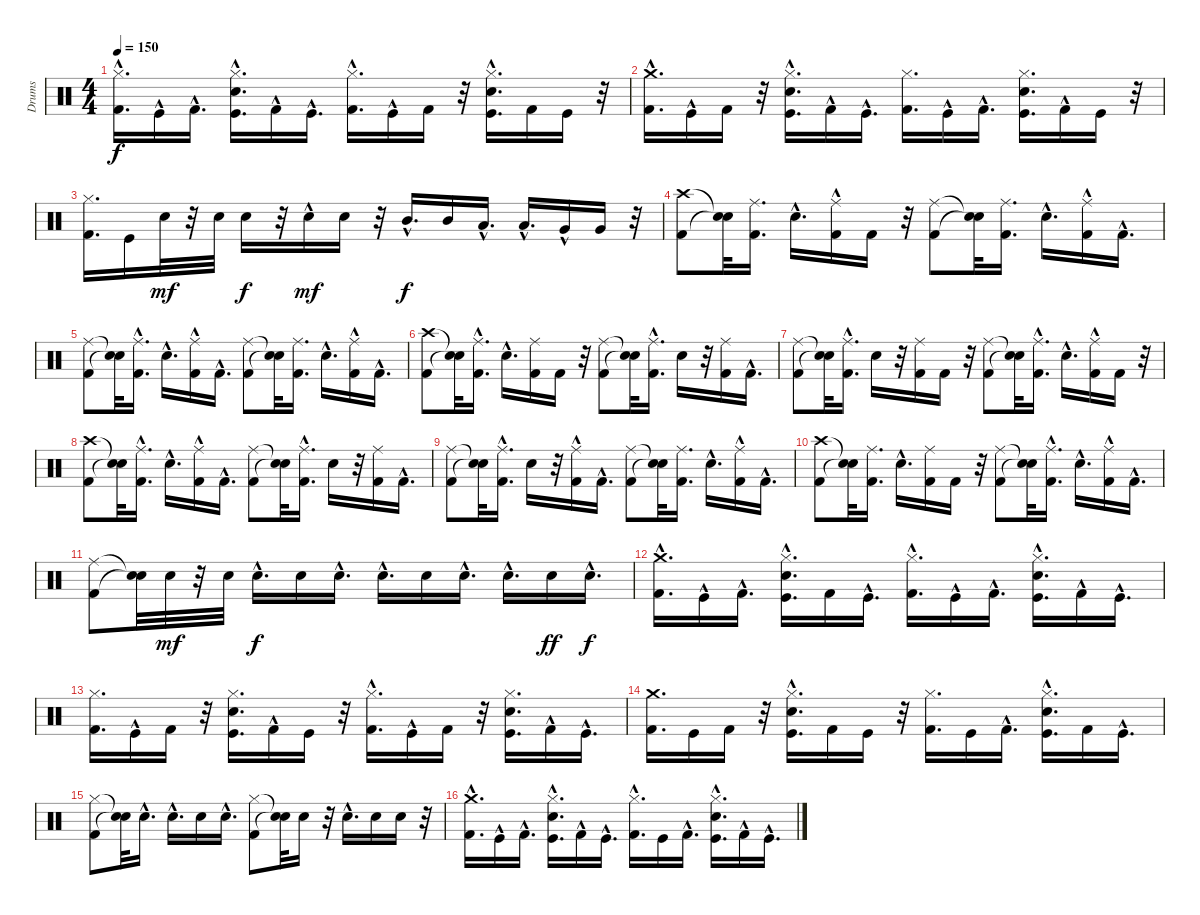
\track ("Drums" "Drums") {instrument percussion}
\staff {score}
\articulation defaults
\ts (4 4)
\tempo 150
\clef neutral
\ks c
("Hi-Hat (closed)" "Kick (hit) 2"{hac}).16{d dy f} "Kick (hit)"{hac}.16 "Kick (hit) 2"{hac}.16{d} ("Kick (hit)"{hac} "Hi-Hat (closed)" "Snare (hit) 2").16{d} "Kick (hit) 2"{hac}.16 "Kick (hit)"{hac}.16{d} ("Kick (hit) 2"{hac} "Hi-Hat (closed)").16{d} "Kick (hit)"{hac}.16 "Kick (hit) 2".16 r.32 ("Snare (hit) 2" "Hi-Hat (closed)" "Kick (hit)"{hac}).16{d} "Kick (hit) 2".16 "Kick (hit)".16 r.32 |
("Crash medium (hit)" "Kick (hit) 2"{hac}).16{d} "Kick (hit)"{hac}.16 "Kick (hit) 2".16 r.32 ("Kick (hit)"{hac} "Hi-Hat (closed)" "Snare (hit) 2").16{d} "Kick (hit) 2"{hac}.16 "Kick (hit)"{hac}.16{d} ("Hi-Hat (closed)" "Kick (hit) 2").16{d} "Kick (hit)"{hac}.16 "Kick (hit) 2"{hac}.16{d} ("Snare (hit) 2" "Hi-Hat (closed)" "Kick (hit)").16{d} "Kick (hit) 2"{hac}.16 "Kick (hit)".16 r.32 |
("Hi-Hat (closed)" "Kick (hit) 2").16{d} "Kick (hit)".16 "Snare (hit) 2".32{dy mf} r.32 "Snare (hit) 2".32 "Snare (hit) 2".16{dy f} r.32 "Snare (hit) 2"{hac}.16{dy mf} "Snare (hit) 2".16 r.32 "Mid Tom (hit)"{hac}.16{d dy f} "Mid Tom (hit)".16 "Low Tom (hit)"{hac}.16{d} "Low Tom (hit)"{hac}.16{d} "Very Low Tom (hit)"{hac}.16 "Very Low Tom (hit)".16 r.32 |
("Crash high (hit)" "Kick (hit) 2").8 ("Snare (hit)"{t} "Snare (hit)"{t}).32 ("Ride (middle)" "Kick (hit) 2").16{d} "Electric Snare (hit)"{hac}.16{d} ("Kick (hit) 2"{hac} "Ride (middle)").16 "Kick (hit) 2".16 r.32 ("Ride (middle)" "Kick (hit) 2").8 ("Snare (hit)"{t} "Snare (hit)"{t}).32 ("Ride (middle)" "Kick (hit) 2").16{d} "Electric Snare (hit)"{hac}.16{d} ("Ride (middle)" "Kick (hit) 2"{hac}).16 "Kick (hit) 2"{hac}.16{d} |
("Ride (middle)" "Kick (hit) 2").8 ("Snare (hit)"{t} "Snare (hit)"{t}).32 ("Ride (middle)" "Kick (hit) 2"{hac}).16{d} "Electric Snare (hit)"{hac}.16{d} ("Ride (middle)" "Kick (hit) 2"{hac}).16 "Kick (hit) 2"{hac}.16{d} ("Kick (hit) 2" "Ride (middle)").8 ("Snare (hit)"{t} "Snare (hit)"{t}).32 ("Ride (middle)" "Kick (hit) 2").16{d} "Electric Snare (hit)"{hac}.16{d} ("Kick (hit) 2"{hac} "Ride (middle)").16 "Kick (hit) 2"{hac}.16{d} |
("Kick (hit) 2" "Crash high (hit)").8 ("Snare (hit)"{t} "Snare (hit)"{t}).32 ("Kick (hit) 2"{hac} "Ride (middle)").16{d} "Electric Snare (hit)"{hac}.16{d} ("Ride (middle)" "Kick (hit) 2").16 "Kick (hit) 2".16 r.32 ("Ride (middle)" "Kick (hit) 2").8 ("Snare (hit)"{t} "Snare (hit)"{t}).32 ("Kick (hit) 2"{hac} "Ride (middle)").16{d} "Electric Snare (hit)".16 r.32 ("Ride (middle)" "Kick (hit) 2").16 "Kick (hit) 2"{hac}.16{d} |
("Ride (middle)" "Kick (hit) 2").8 ("Snare (hit)"{t} "Snare (hit)"{t}).32 ("Kick (hit) 2"{hac} "Ride (middle)").16{d} "Electric Snare (hit)".16 r.32 ("Ride (middle)" "Kick (hit) 2").16 "Kick (hit) 2".16 r.32 ("Kick (hit) 2" "Ride (middle)").8 ("Snare (hit)"{t} "Snare (hit)"{t}).32 ("Ride (middle)" "Kick (hit) 2"{hac}).16{d} "Electric Snare (hit)"{hac}.16{d} ("Kick (hit) 2"{hac} "Ride (middle)").16 "Kick (hit) 2".16 r.32 |
("Crash high (hit)" "Kick (hit) 2").8 ("Snare (hit)"{t} "Snare (hit)"{t}).32 ("Ride (middle)" "Kick (hit) 2"{hac}).16{d} "Electric Snare (hit)"{hac}.16{d} ("Ride (middle)" "Kick (hit) 2"{hac}).16 "Kick (hit) 2"{hac}.16{d} ("Kick (hit) 2" "Ride (middle)").8 ("Snare (hit)"{t} "Snare (hit)"{t}).32 ("Ride (middle)" "Kick (hit) 2"{hac}).16{d} "Electric Snare (hit)".16 r.32 ("Ride (middle)" "Kick (hit) 2").16 "Kick (hit) 2"{hac}.16{d} |
("Ride (middle)" "Kick (hit) 2").8 ("Snare (hit)"{t} "Snare (hit)"{t}).32 ("Kick (hit) 2"{hac} "Ride (middle)").16{d} "Electric Snare (hit)".16 r.32 ("Kick (hit) 2"{hac} "Ride (middle)").16 "Kick (hit) 2"{hac}.16{d} ("Kick (hit) 2" "Ride (middle)").8 ("Snare (hit)"{t} "Snare (hit)"{t}).32 ("Ride (middle)" "Kick (hit) 2").16{d} "Electric Snare (hit)"{hac}.16{d} ("Ride (middle)" "Kick (hit) 2"{hac}).16 "Kick (hit) 2"{hac}.16{d} |
("Crash high (hit)" "Kick (hit) 2").8 ("Snare (hit)"{t} "Snare (hit)"{t}).32 ("Ride (middle)" "Kick (hit) 2").16{d} "Electric Snare (hit)"{hac}.16{d} ("Ride (middle)" "Kick (hit) 2").16 "Kick (hit) 2".16 r.32 ("Ride (middle)" "Kick (hit) 2").8 ("Snare (hit)"{t} "Snare (hit)"{t}).32 ("Ride (middle)" "Kick (hit) 2"{hac}).16{d} "Electric Snare (hit)"{hac}.16{d} ("Kick (hit) 2"{hac} "Ride (middle)").16 "Kick (hit) 2"{hac}.16{d} |
("Kick (hit) 2" "Ride (middle)").8 ("Snare (hit)"{t} "Snare (hit)"{t}).32 "Snare (hit) 2".32{dy mf} r.32 "Snare (hit) 2".32 "Snare (hit) 2"{hac}.16{d dy f} "Snare (hit) 2".16 "Snare (hit) 2"{hac}.16{d} "Snare (hit) 2"{hac}.16{d} "Snare (hit) 2".16 "Snare (hit) 2"{hac}.16{d} "Snare (hit) 2"{hac}.16{d} "Snare (hit) 2".16{dy ff} "Snare (hit) 2"{hac}.16{d dy f} |
("Kick (hit) 2"{hac} "Crash medium (hit)").16{d} "Kick (hit)"{hac}.16 "Kick (hit) 2"{hac}.16{d} ("Kick (hit)"{hac} "Snare (hit) 2" "Hi-Hat (closed)").16{d} "Kick (hit) 2".16 "Kick (hit)"{hac}.16{d} ("Kick (hit) 2"{hac} "Hi-Hat (closed)").16{d} "Kick (hit)"{hac}.16 "Kick (hit) 2"{hac}.16{d} ("Snare (hit) 2" "Kick (hit)"{hac} "Hi-Hat (closed)").16{d} "Kick (hit) 2"{hac}.16 "Kick (hit)"{hac}.16{d} |
("Hi-Hat (closed)" "Kick (hit) 2").16{d} "Kick (hit)"{hac}.16 "Kick (hit) 2".16 r.32 ("Hi-Hat (closed)" "Snare (hit) 2" "Kick (hit)").16{d} "Kick (hit) 2"{hac}.16 "Kick (hit)".16 r.32 ("Kick (hit) 2"{hac} "Hi-Hat (closed)").16{d} "Kick (hit)"{hac}.16 "Kick (hit) 2".16 r.32 ("Hi-Hat (closed)" "Snare (hit) 2" "Kick (hit)").16{d} "Kick (hit) 2"{hac}.16 "Kick (hit)"{hac}.16{d} |
("Crash medium (hit)" "Kick (hit) 2").16{d} "Kick (hit)".16 "Kick (hit) 2".16 r.32 ("Snare (hit) 2" "Kick (hit)"{hac} "Hi-Hat (closed)").16{d} "Kick (hit) 2".16 "Kick (hit)".16 r.32 ("Hi-Hat (closed)" "Kick (hit) 2").16{d} "Kick (hit)".16 "Kick (hit) 2"{hac}.16{d} ("Kick (hit)"{hac} "Hi-Hat (closed)" "Snare (hit) 2").16{d} "Kick (hit) 2".16 "Kick (hit)"{hac}.16{d} |
("Hi-Hat (closed)" "Kick (hit) 2").8 ("Snare (hit)"{t} "Snare (hit)"{t}).32 "Snare (hit) 2"{hac}.16{d} "Snare (hit) 2"{hac}.16{d} "Snare (hit) 2".16 "Snare (hit) 2"{hac}.16{d} ("Kick (hit) 2" "Hi-Hat (closed)").8 ("Snare (hit)"{t} "Snare (hit)"{t}).32 "Snare (hit) 2".16 r.32 "Snare (hit) 2"{hac}.16{d} "Snare (hit) 2".16 "Snare (hit) 2".16 r.32 |
("Crash medium (hit)" "Kick (hit) 2"{hac}).16{d} "Kick (hit)"{hac}.16 "Kick (hit) 2"{hac}.16{d} ("Kick (hit)"{hac} "Hi-Hat (closed)" "Snare (hit) 2").16{d} "Kick (hit) 2"{hac}.16 "Kick (hit)"{hac}.16{d} ("Hi-Hat (closed)" "Kick (hit) 2"{hac}).16{d} "Kick (hit)".16 "Kick (hit) 2"{hac}.16{d} ("Hi-Hat (closed)" "Snare (hit) 2" "Kick (hit)"{hac}).16{d} "Kick (hit) 2"{hac}.16 "Kick (hit)"{hac}.16{d}
